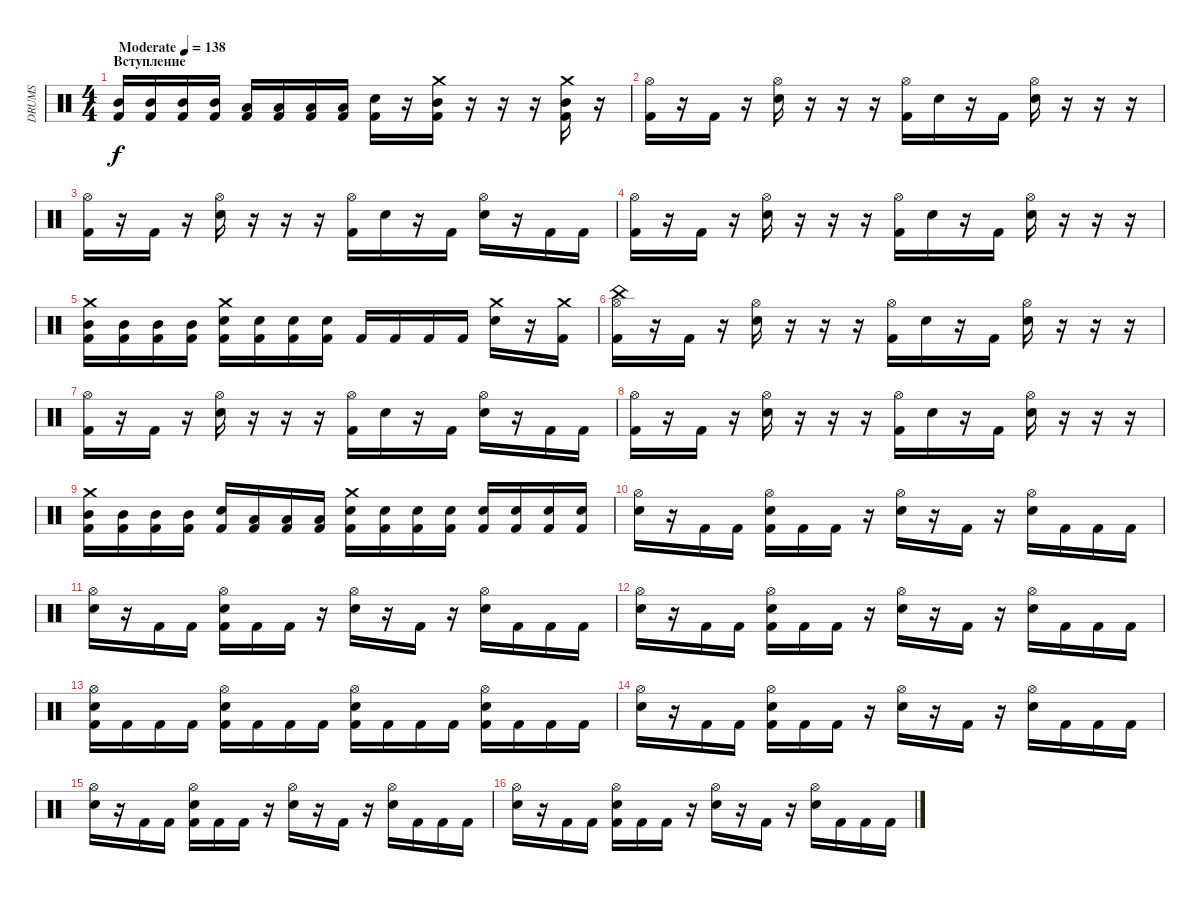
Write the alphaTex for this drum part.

\track ("DRUMS" "DRUMS") {instrument percussion}
\staff {score}
\articulation defaults
\ts (4 4)
\section ("" "Вступление")
\tempo (138 "Moderate")
\clef neutral
\ks c
("Mid Tom (hit)" "Kick (hit) 2").16{dy f} ("Mid Tom (hit)" "Kick (hit) 2").16 ("Mid Tom (hit)" "Kick (hit) 2").16 ("Mid Tom (hit)" "Kick (hit) 2").16 ("Low Tom (hit)" "Kick (hit) 2").16 ("Low Tom (hit)" "Kick (hit) 2").16 ("Low Tom (hit)" "Kick (hit) 2").16 ("Low Tom (hit)" "Kick (hit) 2").16 ("Electric Snare (hit)" "Kick (hit) 2").16 r.16 ("Crash medium (hit)" "Mid Tom (hit)" "Kick (hit) 2").16 r.16 r.16 r.16 ("Crash medium (hit)" "Mid Tom (hit)" "Kick (hit) 2").16 r.16 |
("Hi-Hat (open)" "Kick (hit) 2").16 r.16 "Kick (hit) 2".16 r.16 ("Hi-Hat (open)" "Electric Snare (hit)").16 r.16 r.16 r.16 ("Hi-Hat (open)" "Kick (hit) 2").16 "Electric Snare (hit)".16 r.16 "Kick (hit) 2".16 ("Hi-Hat (open)" "Electric Snare (hit)").16 r.16 r.16 r.16 |
("Hi-Hat (open)" "Kick (hit) 2").16 r.16 "Kick (hit) 2".16 r.16 ("Hi-Hat (open)" "Electric Snare (hit)").16 r.16 r.16 r.16 ("Hi-Hat (open)" "Kick (hit) 2").16 "Electric Snare (hit)".16 r.16 "Kick (hit) 2".16 ("Hi-Hat (open)" "Electric Snare (hit)").16 r.16 "Kick (hit) 2".16 "Kick (hit) 2".16 |
("Hi-Hat (open)" "Kick (hit) 2").16 r.16 "Kick (hit) 2".16 r.16 ("Hi-Hat (open)" "Electric Snare (hit)").16 r.16 r.16 r.16 ("Hi-Hat (open)" "Kick (hit) 2").16 "Electric Snare (hit)".16 r.16 "Kick (hit) 2".16 ("Hi-Hat (open)" "Electric Snare (hit)").16 r.16 r.16 r.16 |
("Crash medium (hit)" "Mid Tom (hit)" "Kick (hit) 2").16 ("Mid Tom (hit)" "Kick (hit) 2").16 ("Mid Tom (hit)" "Kick (hit) 2").16 ("Mid Tom (hit)" "Kick (hit) 2").16 ("Crash medium (hit)" "Electric Snare (hit)" "Kick (hit) 2").16 ("Electric Snare (hit)" "Kick (hit) 2").16 ("Electric Snare (hit)" "Kick (hit) 2").16 ("Electric Snare (hit)" "Kick (hit) 2").16 "Kick (hit) 2".16 "Kick (hit) 2".16 "Kick (hit) 2".16 "Kick (hit) 2".16 ("Crash medium (hit)" "Electric Snare (hit)").16 r.16 ("Crash medium (hit)" "Kick (hit) 2").16 |
("China (hit)" "Hi-Hat (open)" "Kick (hit) 2").16 r.16 "Kick (hit) 2".16 r.16 ("Hi-Hat (open)" "Electric Snare (hit)").16 r.16 r.16 r.16 ("Hi-Hat (open)" "Kick (hit) 2").16 "Electric Snare (hit)".16 r.16 "Kick (hit) 2".16 ("Hi-Hat (open)" "Electric Snare (hit)").16 r.16 r.16 r.16 |
("Hi-Hat (open)" "Kick (hit) 2").16 r.16 "Kick (hit) 2".16 r.16 ("Hi-Hat (open)" "Electric Snare (hit)").16 r.16 r.16 r.16 ("Hi-Hat (open)" "Kick (hit) 2").16 "Electric Snare (hit)".16 r.16 "Kick (hit) 2".16 ("Hi-Hat (open)" "Electric Snare (hit)").16 r.16 "Kick (hit) 2".16 "Kick (hit) 2".16 |
("Hi-Hat (open)" "Kick (hit) 2").16 r.16 "Kick (hit) 2".16 r.16 ("Hi-Hat (open)" "Electric Snare (hit)").16 r.16 r.16 r.16 ("Hi-Hat (open)" "Kick (hit) 2").16 "Electric Snare (hit)".16 r.16 "Kick (hit) 2".16 ("Hi-Hat (open)" "Electric Snare (hit)").16 r.16 r.16 r.16 |
("Crash medium (hit)" "Mid Tom (hit)" "Kick (hit) 2").16 ("Mid Tom (hit)" "Kick (hit) 2").16 ("Mid Tom (hit)" "Kick (hit) 2").16 ("Mid Tom (hit)" "Kick (hit) 2").16 ("Electric Snare (hit)" "Kick (hit) 2").16 ("Low Floor Tom (hit)" "Kick (hit) 2").16 ("Low Floor Tom (hit)" "Kick (hit) 2").16 ("Low Floor Tom (hit)" "Kick (hit) 2").16 ("Crash medium (hit)" "Electric Snare (hit)" "Kick (hit) 2").16 ("Electric Snare (hit)" "Kick (hit) 2").16 ("Electric Snare (hit)" "Kick (hit) 2").16 ("Electric Snare (hit)" "Kick (hit) 2").16 ("Electric Snare (hit)" "Kick (hit) 2").16 ("Electric Snare (hit)" "Kick (hit) 2").16 ("Electric Snare (hit)" "Kick (hit) 2").16 ("Electric Snare (hit)" "Kick (hit) 2").16 |
("Hi-Hat (open)" "Electric Snare (hit)").16 r.16 "Kick (hit) 2".16 "Kick (hit) 2".16 ("Hi-Hat (open)" "Electric Snare (hit)" "Kick (hit) 2").16 "Kick (hit) 2".16 "Kick (hit) 2".16 r.16 ("Hi-Hat (open)" "Electric Snare (hit)").16 r.16 "Kick (hit) 2".16 r.16 ("Hi-Hat (open)" "Electric Snare (hit)").16 "Kick (hit) 2".16 "Kick (hit) 2".16 "Kick (hit) 2".16 |
("Hi-Hat (open)" "Electric Snare (hit)").16 r.16 "Kick (hit) 2".16 "Kick (hit) 2".16 ("Hi-Hat (open)" "Electric Snare (hit)" "Kick (hit) 2").16 "Kick (hit) 2".16 "Kick (hit) 2".16 r.16 ("Hi-Hat (open)" "Electric Snare (hit)").16 r.16 "Kick (hit) 2".16 r.16 ("Hi-Hat (open)" "Electric Snare (hit)").16 "Kick (hit) 2".16 "Kick (hit) 2".16 "Kick (hit) 2".16 |
("Hi-Hat (open)" "Electric Snare (hit)").16 r.16 "Kick (hit) 2".16 "Kick (hit) 2".16 ("Hi-Hat (open)" "Electric Snare (hit)" "Kick (hit) 2").16 "Kick (hit) 2".16 "Kick (hit) 2".16 r.16 ("Hi-Hat (open)" "Electric Snare (hit)").16 r.16 "Kick (hit) 2".16 r.16 ("Hi-Hat (open)" "Electric Snare (hit)").16 "Kick (hit) 2".16 "Kick (hit) 2".16 "Kick (hit) 2".16 |
("Hi-Hat (open)" "Electric Snare (hit)" "Kick (hit) 2").16 "Kick (hit) 2".16 "Kick (hit) 2".16 "Kick (hit) 2".16 ("Hi-Hat (open)" "Electric Snare (hit)" "Kick (hit) 2").16 "Kick (hit) 2".16 "Kick (hit) 2".16 "Kick (hit) 2".16 ("Hi-Hat (open)" "Electric Snare (hit)" "Kick (hit) 2").16 "Kick (hit) 2".16 "Kick (hit) 2".16 "Kick (hit) 2".16 ("Hi-Hat (open)" "Electric Snare (hit)" "Kick (hit) 2").16 "Kick (hit) 2".16 "Kick (hit) 2".16 "Kick (hit) 2".16 |
("Hi-Hat (open)" "Electric Snare (hit)").16 r.16 "Kick (hit) 2".16 "Kick (hit) 2".16 ("Hi-Hat (open)" "Electric Snare (hit)" "Kick (hit) 2").16 "Kick (hit) 2".16 "Kick (hit) 2".16 r.16 ("Hi-Hat (open)" "Electric Snare (hit)").16 r.16 "Kick (hit) 2".16 r.16 ("Hi-Hat (open)" "Electric Snare (hit)").16 "Kick (hit) 2".16 "Kick (hit) 2".16 "Kick (hit) 2".16 |
("Hi-Hat (open)" "Electric Snare (hit)").16 r.16 "Kick (hit) 2".16 "Kick (hit) 2".16 ("Hi-Hat (open)" "Electric Snare (hit)" "Kick (hit) 2").16 "Kick (hit) 2".16 "Kick (hit) 2".16 r.16 ("Hi-Hat (open)" "Electric Snare (hit)").16 r.16 "Kick (hit) 2".16 r.16 ("Hi-Hat (open)" "Electric Snare (hit)").16 "Kick (hit) 2".16 "Kick (hit) 2".16 "Kick (hit) 2".16 |
("Hi-Hat (open)" "Electric Snare (hit)").16 r.16 "Kick (hit) 2".16 "Kick (hit) 2".16 ("Hi-Hat (open)" "Electric Snare (hit)" "Kick (hit) 2").16 "Kick (hit) 2".16 "Kick (hit) 2".16 r.16 ("Hi-Hat (open)" "Electric Snare (hit)").16 r.16 "Kick (hit) 2".16 r.16 ("Hi-Hat (open)" "Electric Snare (hit)").16 "Kick (hit) 2".16 "Kick (hit) 2".16 "Kick (hit) 2".16
